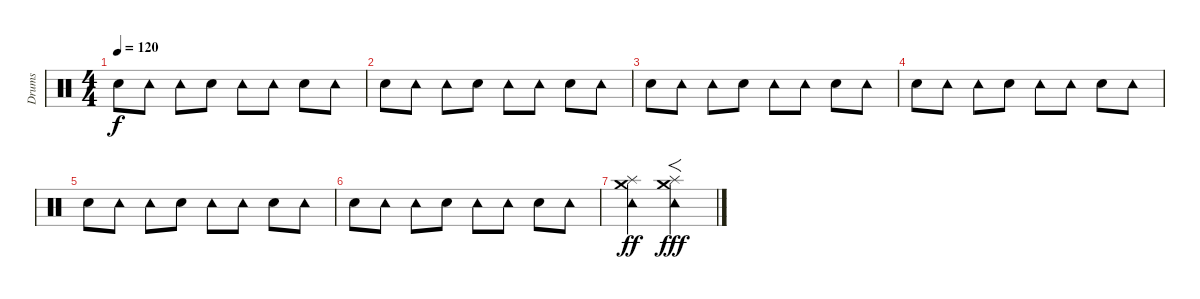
\track ("Drums" "Drums") {instrument percussion}
\staff {score}
\articulation defaults
\ts (4 4)
\tempo 120
\clef neutral
\ks c "Electric Snare (hit)".8{dy f} "Tambourine (hit)".8 "Tambourine (hit)".8 "Electric Snare (hit)".8 "Tambourine (hit)".8 "Tambourine (hit)".8 "Electric Snare (hit)".8 "Tambourine (hit)".8
|
"Electric Snare (hit)".8 "Tambourine (hit)".8 "Tambourine (hit)".8 "Electric Snare (hit)".8 "Tambourine (hit)".8 "Tambourine (hit)".8 "Electric Snare (hit)".8 "Tambourine (hit)".8 |
"Electric Snare (hit)".8 "Tambourine (hit)".8 "Tambourine (hit)".8 "Electric Snare (hit)".8 "Tambourine (hit)".8 "Tambourine (hit)".8 "Electric Snare (hit)".8 "Tambourine (hit)".8 |
"Electric Snare (hit)".8 "Tambourine (hit)".8 "Tambourine (hit)".8 "Electric Snare (hit)".8 "Tambourine (hit)".8 "Tambourine (hit)".8 "Electric Snare (hit)".8 "Tambourine (hit)".8 |
"Electric Snare (hit)".8 "Tambourine (hit)".8 "Tambourine (hit)".8 "Electric Snare (hit)".8 "Tambourine (hit)".8 "Tambourine (hit)".8 "Electric Snare (hit)".8 "Tambourine (hit)".8 |
"Electric Snare (hit)".8 "Tambourine (hit)".8 "Tambourine (hit)".8 "Electric Snare (hit)".8 "Tambourine (hit)".8 "Tambourine (hit)".8 "Electric Snare (hit)".8 "Tambourine (hit)".8 |
("Splash (hit)" "Crash medium (hit)" "Tambourine (hit)").2{dy ff} ("Splash (hit)" "Crash medium (hit)" "Tambourine (hit)").2{f dy fff}
